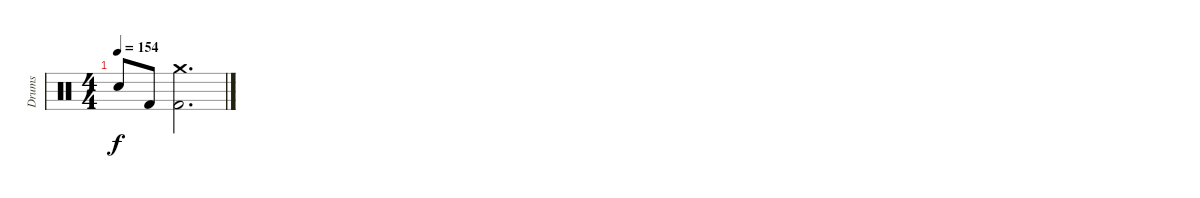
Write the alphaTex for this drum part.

\track ("Drums" "Drums") {instrument percussion}
\staff {score}
\articulation defaults
\ts (4 4)
\tempo 154
\clef neutral
\ks c "Snare (hit) 2".8{dy f} "Kick (hit) 2".8
("Crash medium (hit)" "Kick (hit) 2").2{d}
